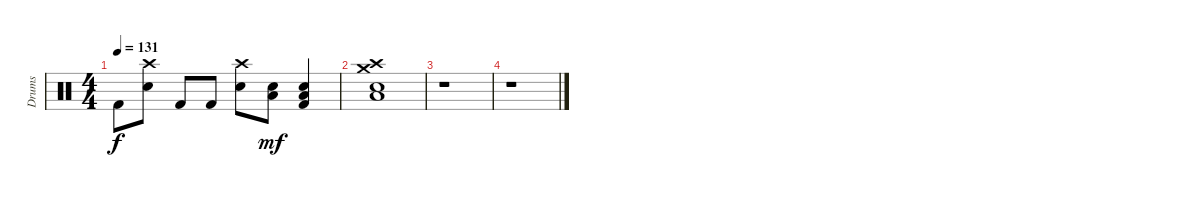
\track ("Drums" "Drums") {instrument percussion}
\staff {score}
\articulation defaults
\ts (4 4)
\tempo 131
\clef neutral
\ks c "Kick (hit) 2".8{dy f}
("Crash high (hit)" "Electric Snare (hit)").8 "Kick (hit) 2".8 "Kick (hit) 2".8 ("Crash high (hit)" "Electric Snare (hit)").8 ("Low Tom (hit)" "Electric Snare (hit)").8{dy mf} ("Low Tom (hit)" "Electric Snare (hit)" "Kick (hit) 2").4 |
("Crash high (hit)" "Crash medium (hit)" "Low Tom (hit)" "Electric Snare (hit)").1 |
r.1 |
r.1
